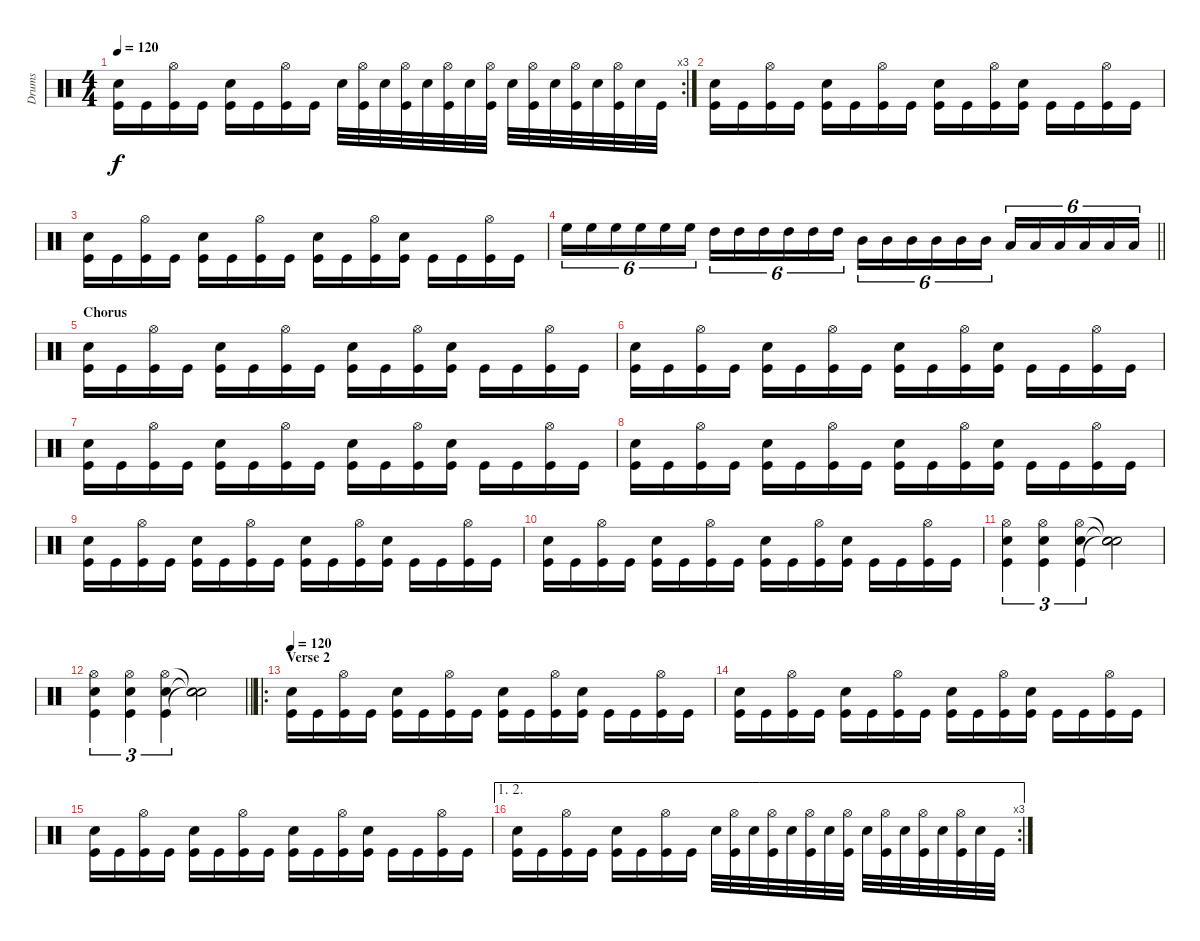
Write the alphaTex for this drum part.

\track ("Drums" "Drums") {instrument percussion}
\staff {score}
\articulation defaults
\rc 3
\ts (4 4)
\tempo 120
\clef neutral
\ks c
("Snare (hit) 2" "Kick (hit)").16{dy f} "Kick (hit)".16 ("Hi-Hat (open)" "Kick (hit)").16 "Kick (hit)".16 ("Snare (hit) 2" "Kick (hit)").16 "Kick (hit)".16 ("Hi-Hat (open)" "Kick (hit)").16 "Kick (hit)".16 "Snare (hit) 2".32 ("Hi-Hat (open)" "Kick (hit)").32 "Snare (hit) 2".32 ("Hi-Hat (open)" "Kick (hit)").32 "Snare (hit) 2".32 ("Hi-Hat (open)" "Kick (hit)").32 "Snare (hit) 2".32 ("Hi-Hat (open)" "Kick (hit)").32 "Snare (hit) 2".32 ("Hi-Hat (open)" "Kick (hit)").32 "Snare (hit) 2".32 ("Hi-Hat (open)" "Kick (hit)").32 "Snare (hit) 2".32 ("Hi-Hat (open)" "Kick (hit)").32 "Snare (hit) 2".32 "Kick (hit)".32 |
("Snare (hit) 2" "Kick (hit)").16 "Kick (hit)".16 ("Hi-Hat (open)" "Kick (hit)").16 "Kick (hit)".16 ("Snare (hit) 2" "Kick (hit)").16 "Kick (hit)".16 ("Hi-Hat (open)" "Kick (hit)").16 "Kick (hit)".16 ("Snare (hit) 2" "Kick (hit)").16 "Kick (hit)".16 ("Hi-Hat (open)" "Kick (hit)").16 ("Snare (hit) 2" "Kick (hit)").16 "Kick (hit)".16 "Kick (hit)".16 ("Hi-Hat (open)" "Kick (hit)").16 "Kick (hit)".16 |
("Snare (hit) 2" "Kick (hit)").16 "Kick (hit)".16 ("Hi-Hat (open)" "Kick (hit)").16 "Kick (hit)".16 ("Snare (hit) 2" "Kick (hit)").16 "Kick (hit)".16 ("Hi-Hat (open)" "Kick (hit)").16 "Kick (hit)".16 ("Snare (hit) 2" "Kick (hit)").16 "Kick (hit)".16 ("Hi-Hat (open)" "Kick (hit)").16 ("Snare (hit) 2" "Kick (hit)").16 "Kick (hit)".16 "Kick (hit)".16 ("Hi-Hat (open)" "Kick (hit)").16 "Kick (hit)".16 |
\barLineRight lightlight "High Floor Tom (hit)".16{tu (6 4)} "High Floor Tom (hit)".16{tu (6 4)} "High Floor Tom (hit)".16{tu (6 4)} "High Floor Tom (hit)".16{tu (6 4)} "High Floor Tom (hit)".16{tu (6 4)} "High Floor Tom (hit)".16{tu (6 4)} "High Tom (hit)".16{tu (6 4)} "High Tom (hit)".16{tu (6 4)} "High Tom (hit)".16{tu (6 4)} "High Tom (hit)".16{tu (6 4)} "High Tom (hit)".16{tu (6 4)} "High Tom (hit)".16{tu (6 4)} "Mid Tom (hit)".16{tu (6 4)} "Mid Tom (hit)".16{tu (6 4)} "Mid Tom (hit)".16{tu (6 4)} "Mid Tom (hit)".16{tu (6 4)} "Mid Tom (hit)".16{tu (6 4)} "Mid Tom (hit)".16{tu (6 4)} "Low Tom (hit)".16{tu (6 4)} "Low Tom (hit)".16{tu (6 4)} "Low Tom (hit)".16{tu (6 4)} "Low Tom (hit)".16{tu (6 4)} "Low Tom (hit)".16{tu (6 4)} "Low Tom (hit)".16{tu (6 4)}
|
\section ("" "Chorus")
("Snare (hit) 2" "Kick (hit)").16 "Kick (hit)".16 ("Hi-Hat (open)" "Kick (hit)").16 "Kick (hit)".16 ("Snare (hit) 2" "Kick (hit)").16 "Kick (hit)".16 ("Hi-Hat (open)" "Kick (hit)").16 "Kick (hit)".16 ("Snare (hit) 2" "Kick (hit)").16 "Kick (hit)".16 ("Hi-Hat (open)" "Kick (hit)").16 ("Snare (hit) 2" "Kick (hit)").16 "Kick (hit)".16 "Kick (hit)".16 ("Hi-Hat (open)" "Kick (hit)").16 "Kick (hit)".16 |
("Snare (hit) 2" "Kick (hit)").16 "Kick (hit)".16 ("Hi-Hat (open)" "Kick (hit)").16 "Kick (hit)".16 ("Snare (hit) 2" "Kick (hit)").16 "Kick (hit)".16 ("Hi-Hat (open)" "Kick (hit)").16 "Kick (hit)".16 ("Snare (hit) 2" "Kick (hit)").16 "Kick (hit)".16 ("Hi-Hat (open)" "Kick (hit)").16 ("Snare (hit) 2" "Kick (hit)").16 "Kick (hit)".16 "Kick (hit)".16 ("Hi-Hat (open)" "Kick (hit)").16 "Kick (hit)".16 |
("Snare (hit) 2" "Kick (hit)").16 "Kick (hit)".16 ("Hi-Hat (open)" "Kick (hit)").16 "Kick (hit)".16 ("Snare (hit) 2" "Kick (hit)").16 "Kick (hit)".16 ("Hi-Hat (open)" "Kick (hit)").16 "Kick (hit)".16 ("Snare (hit) 2" "Kick (hit)").16 "Kick (hit)".16 ("Hi-Hat (open)" "Kick (hit)").16 ("Snare (hit) 2" "Kick (hit)").16 "Kick (hit)".16 "Kick (hit)".16 ("Hi-Hat (open)" "Kick (hit)").16 "Kick (hit)".16 |
("Snare (hit) 2" "Kick (hit)").16 "Kick (hit)".16 ("Hi-Hat (open)" "Kick (hit)").16 "Kick (hit)".16 ("Snare (hit) 2" "Kick (hit)").16 "Kick (hit)".16 ("Hi-Hat (open)" "Kick (hit)").16 "Kick (hit)".16 ("Snare (hit) 2" "Kick (hit)").16 "Kick (hit)".16 ("Hi-Hat (open)" "Kick (hit)").16 ("Snare (hit) 2" "Kick (hit)").16 "Kick (hit)".16 "Kick (hit)".16 ("Hi-Hat (open)" "Kick (hit)").16 "Kick (hit)".16 |
("Snare (hit) 2" "Kick (hit)").16 "Kick (hit)".16 ("Hi-Hat (open)" "Kick (hit)").16 "Kick (hit)".16 ("Snare (hit) 2" "Kick (hit)").16 "Kick (hit)".16 ("Hi-Hat (open)" "Kick (hit)").16 "Kick (hit)".16 ("Snare (hit) 2" "Kick (hit)").16 "Kick (hit)".16 ("Hi-Hat (open)" "Kick (hit)").16 ("Snare (hit) 2" "Kick (hit)").16 "Kick (hit)".16 "Kick (hit)".16 ("Hi-Hat (open)" "Kick (hit)").16 "Kick (hit)".16 |
("Snare (hit) 2" "Kick (hit)").16 "Kick (hit)".16 ("Hi-Hat (open)" "Kick (hit)").16 "Kick (hit)".16 ("Snare (hit) 2" "Kick (hit)").16 "Kick (hit)".16 ("Hi-Hat (open)" "Kick (hit)").16 "Kick (hit)".16 ("Snare (hit) 2" "Kick (hit)").16 "Kick (hit)".16 ("Hi-Hat (open)" "Kick (hit)").16 ("Snare (hit) 2" "Kick (hit)").16 "Kick (hit)".16 "Kick (hit)".16 ("Hi-Hat (open)" "Kick (hit)").16 "Kick (hit)".16 |
("Hi-Hat (open)" "Snare (hit) 2" "Kick (hit)").4{tu (3 2)} ("Hi-Hat (open)" "Snare (hit) 2" "Kick (hit)").4{tu (3 2)} ("Hi-Hat (open)" "Kick (hit)" "Snare (hit) 2").4{tu (3 2)} ("Snare (hit)"{t} "Snare (hit)"{t} "Snare (hit)"{t}).2 |
\barLineRight lightlight
("Hi-Hat (open)" "Snare (hit) 2" "Kick (hit)").4{tu (3 2)} ("Hi-Hat (open)" "Snare (hit) 2" "Kick (hit)").4{tu (3 2)} ("Hi-Hat (open)" "Kick (hit)" "Snare (hit) 2").4{tu (3 2)} ("Snare (hit)"{t} "Snare (hit)"{t} "Snare (hit)"{t}).2 |
\ro
\section ("" "Verse 2")
\tempo 120
("Snare (hit) 2" "Kick (hit)").16 "Kick (hit)".16 ("Hi-Hat (open)" "Kick (hit)").16 "Kick (hit)".16 ("Snare (hit) 2" "Kick (hit)").16 "Kick (hit)".16 ("Hi-Hat (open)" "Kick (hit)").16 "Kick (hit)".16 ("Snare (hit) 2" "Kick (hit)").16 "Kick (hit)".16 ("Hi-Hat (open)" "Kick (hit)").16 ("Snare (hit) 2" "Kick (hit)").16 "Kick (hit)".16 "Kick (hit)".16 ("Hi-Hat (open)" "Kick (hit)").16 "Kick (hit)".16 |
("Snare (hit) 2" "Kick (hit)").16 "Kick (hit)".16 ("Hi-Hat (open)" "Kick (hit)").16 "Kick (hit)".16 ("Snare (hit) 2" "Kick (hit)").16 "Kick (hit)".16 ("Hi-Hat (open)" "Kick (hit)").16 "Kick (hit)".16 ("Snare (hit) 2" "Kick (hit)").16 "Kick (hit)".16 ("Hi-Hat (open)" "Kick (hit)").16 ("Snare (hit) 2" "Kick (hit)").16 "Kick (hit)".16 "Kick (hit)".16 ("Hi-Hat (open)" "Kick (hit)").16 "Kick (hit)".16 |
("Snare (hit) 2" "Kick (hit)").16 "Kick (hit)".16 ("Hi-Hat (open)" "Kick (hit)").16 "Kick (hit)".16 ("Snare (hit) 2" "Kick (hit)").16 "Kick (hit)".16 ("Hi-Hat (open)" "Kick (hit)").16 "Kick (hit)".16 ("Snare (hit) 2" "Kick (hit)").16 "Kick (hit)".16 ("Hi-Hat (open)" "Kick (hit)").16 ("Snare (hit) 2" "Kick (hit)").16 "Kick (hit)".16 "Kick (hit)".16 ("Hi-Hat (open)" "Kick (hit)").16 "Kick (hit)".16 |
\ae (1 2)
\rc 3
("Snare (hit) 2" "Kick (hit)").16 "Kick (hit)".16 ("Hi-Hat (open)" "Kick (hit)").16 "Kick (hit)".16 ("Snare (hit) 2" "Kick (hit)").16 "Kick (hit)".16 ("Hi-Hat (open)" "Kick (hit)").16 "Kick (hit)".16 "Snare (hit) 2".32 ("Hi-Hat (open)" "Kick (hit)").32 "Snare (hit) 2".32 ("Hi-Hat (open)" "Kick (hit)").32 "Snare (hit) 2".32 ("Hi-Hat (open)" "Kick (hit)").32 "Snare (hit) 2".32 ("Hi-Hat (open)" "Kick (hit)").32 "Snare (hit) 2".32 ("Hi-Hat (open)" "Kick (hit)").32 "Snare (hit) 2".32 ("Hi-Hat (open)" "Kick (hit)").32 "Snare (hit) 2".32 ("Hi-Hat (open)" "Kick (hit)").32 "Snare (hit) 2".32 "Kick (hit)".32
